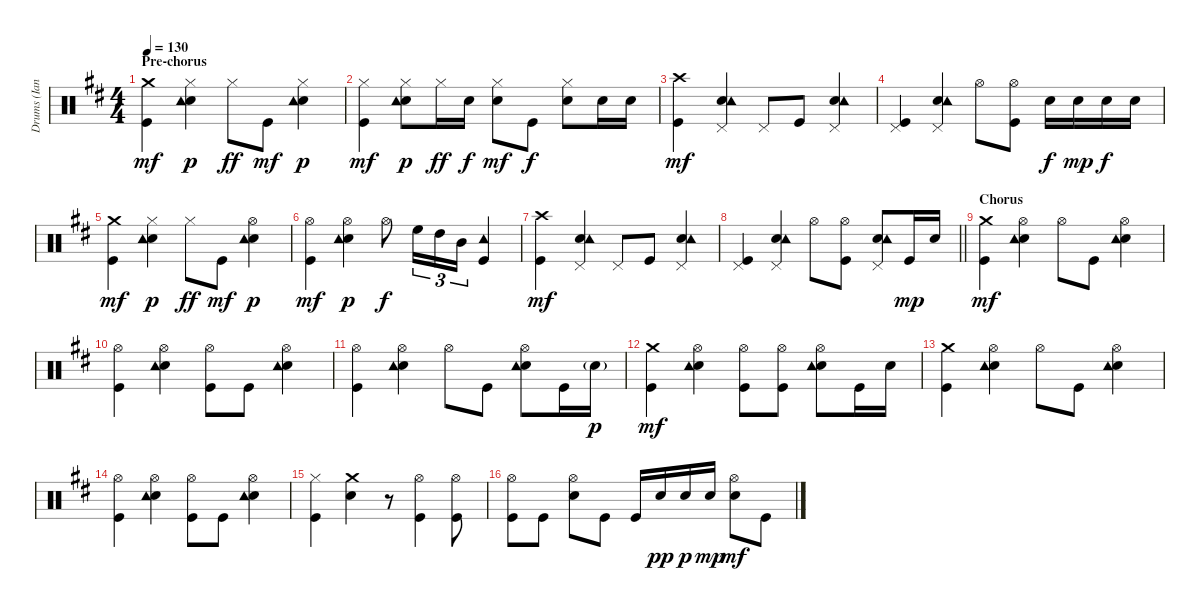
\track ("Drums (Ian Paice)" "Drums (Ian") {instrument percussion}
\staff {score}
\articulation defaults
\ts (4 4)
\section ("" "Pre-chorus")
\tempo 130
\clef neutral
\ks bminor
("Crash medium (hit)" "Kick (hit)").4{dy mf} ("Hi-Hat (closed)" "Electric Snare (hit)" "Tambourine (hit)").4{dy p} "Hi-Hat (closed)".8{dy ff} "Kick (hit)".8{dy mf} ("Hi-Hat (closed)" "Electric Snare (hit)" "Tambourine (hit)").4{dy p} |
("Hi-Hat (closed)" "Kick (hit)").4{dy mf} ("Hi-Hat (closed)" "Electric Snare (hit)" "Tambourine (hit)").8{dy p} "Hi-Hat (closed)".16{dy ff} "Electric Snare (hit)".16{dy f} ("Hi-Hat (closed)" "Electric Snare (hit)").8{dy mf} "Kick (hit)".8{dy f} ("Hi-Hat (closed)" "Electric Snare (hit)").8 "Electric Snare (hit)".16 "Electric Snare (hit)".16 |
("Crash high (hit)" "Kick (hit)").4{dy mf} ("Pedal Hi-Hat (hit)" "Electric Snare (hit)" "Tambourine (hit)").4 "Pedal Hi-Hat (hit)".8 "Kick (hit)".8 ("Pedal Hi-Hat (hit)" "Electric Snare (hit)" "Tambourine (hit)").4 |
("Pedal Hi-Hat (hit)" "Kick (hit)").4 ("Pedal Hi-Hat (hit)" "Electric Snare (hit)" "Tambourine (hit)").4 "Hi-Hat (open)".8 ("Hi-Hat (open)" "Kick (hit)").8 "Electric Snare (hit)".16{dy f} "Electric Snare (hit)".16{dy mp} "Electric Snare (hit)".16{dy f} "Electric Snare (hit)".16 |
("Crash medium (hit)" "Kick (hit)").4{dy mf} ("Hi-Hat (closed)" "Electric Snare (hit)" "Tambourine (hit)").4{dy p} "Hi-Hat (closed)".8{dy ff} "Kick (hit)".8{dy mf} ("Hi-Hat (open)" "Electric Snare (hit)" "Tambourine (hit)").4{dy p} |
("Hi-Hat (open)" "Kick (hit)").4{dy mf} ("Hi-Hat (open)" "Electric Snare (hit)" "Tambourine (hit)").4{dy p} "Hi-Hat (open)".8{dy f} "High Floor Tom (hit)".16{tu (3 2)} "High Tom (hit)".16{tu (3 2)} "Mid Tom (hit)".16{tu (3 2)} ("Tambourine (hit)" "Kick (hit)").4 |
("Crash high (hit)" "Kick (hit)").4{dy mf} ("Pedal Hi-Hat (hit)" "Electric Snare (hit)" "Tambourine (hit)").4 "Pedal Hi-Hat (hit)".8 "Kick (hit)".8 ("Pedal Hi-Hat (hit)" "Electric Snare (hit)" "Tambourine (hit)").4 |
\barLineRight lightlight
("Pedal Hi-Hat (hit)" "Kick (hit)").4 ("Pedal Hi-Hat (hit)" "Electric Snare (hit)" "Tambourine (hit)").4 "Hi-Hat (open)".8 ("Hi-Hat (open)" "Kick (hit)").8 ("Pedal Hi-Hat (hit)" "Electric Snare (hit)" "Tambourine (hit)").8 "Kick (hit)".16{dy mp} "Electric Snare (hit)".16 |
\section ("" "Chorus")
("Crash medium (hit)" "Kick (hit)").4{dy mf} ("Hi-Hat (open)" "Electric Snare (hit)" "Tambourine (hit)").4 "Hi-Hat (open)".8 "Kick (hit)".8 ("Hi-Hat (open)" "Electric Snare (hit)" "Tambourine (hit)").4 |
("Hi-Hat (open)" "Kick (hit)").4 ("Hi-Hat (open)" "Electric Snare (hit)" "Tambourine (hit)").4 ("Hi-Hat (open)" "Kick (hit)").8 "Kick (hit)".8 ("Hi-Hat (open)" "Electric Snare (hit)" "Tambourine (hit)").4 |
("Hi-Hat (open)" "Kick (hit)").4 ("Hi-Hat (open)" "Electric Snare (hit)" "Tambourine (hit)").4 "Hi-Hat (open)".8 "Kick (hit)".8 ("Hi-Hat (open)" "Electric Snare (hit)" "Tambourine (hit)").8 "Kick (hit)".16 "Electric Snare (hit)"{g}.16{dy p} |
("Crash medium (hit)" "Kick (hit)").4{dy mf} ("Hi-Hat (open)" "Electric Snare (hit)" "Tambourine (hit)").4 ("Hi-Hat (open)" "Kick (hit)").8 ("Hi-Hat (open)" "Kick (hit)").8 ("Hi-Hat (open)" "Electric Snare (hit)" "Tambourine (hit)").8 "Kick (hit)".16 "Electric Snare (hit)".16 |
("Crash medium (hit)" "Kick (hit)").4 ("Hi-Hat (open)" "Electric Snare (hit)" "Tambourine (hit)").4 "Hi-Hat (open)".8 "Kick (hit)".8 ("Hi-Hat (open)" "Electric Snare (hit)" "Tambourine (hit)").4 |
("Hi-Hat (open)" "Kick (hit)").4 ("Hi-Hat (open)" "Electric Snare (hit)" "Tambourine (hit)").4 ("Hi-Hat (open)" "Kick (hit)").8 "Kick (hit)".8 ("Hi-Hat (open)" "Electric Snare (hit)" "Tambourine (hit)").4 |
("Hi-Hat (closed)" "Kick (hit)").4 ("Crash medium (hit)" "Electric Snare (hit)").4 r.8 ("Hi-Hat (open)" "Kick (hit)").4 ("Hi-Hat (open)" "Kick (hit)").8 |
("Hi-Hat (open)" "Kick (hit)").8 "Kick (hit)".8 ("Hi-Hat (open)" "Electric Snare (hit)").8 "Kick (hit)".8 "Kick (hit)".16 "Electric Snare (hit)".16{dy pp} "Electric Snare (hit)".16{dy p} "Electric Snare (hit)".16{dy mp} ("Hi-Hat (open)" "Electric Snare (hit)").8{dy mf} "Kick (hit)".8
